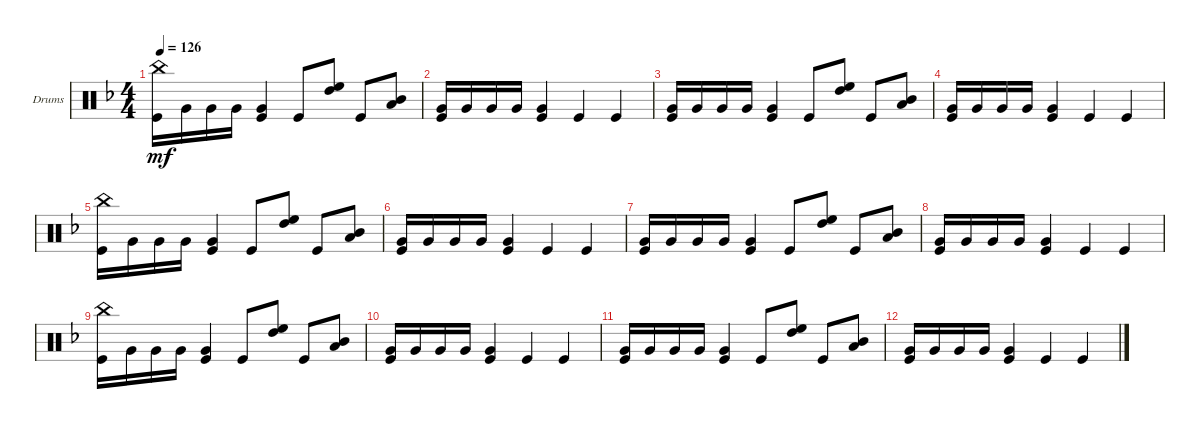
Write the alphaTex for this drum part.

\defaultSystemsLayout 4
\bracketExtendMode groupsimilarinstruments
\firstSystemTrackNameOrientation horizontal
\otherSystemsTrackNameOrientation horizontal
\track ("Drumkit" "Drums") {instrument percussion}
\staff {score}
\articulation defaults
\ts (4 4)
\tempo 126
\clef neutral
\ks f
("China (hit)" "Kick (hit)").16{dy mf} "Very Low Tom (hit)".16 "Very Low Tom (hit)".16 "Very Low Tom (hit)".16 ("Kick (hit)" "Very Low Tom (hit)").4 "Kick (hit)".8 ("High Floor Tom (hit)" "High Tom (hit)").8 "Kick (hit)".8 ("Mid Tom (hit)" "Low Tom (hit)").8 |
("Kick (hit)" "Very Low Tom (hit)").16 "Very Low Tom (hit)".16 "Very Low Tom (hit)".16 "Very Low Tom (hit)".16 ("Very Low Tom (hit)" "Kick (hit)").4 "Kick (hit)".4 "Kick (hit)".4 |
("Kick (hit)" "Very Low Tom (hit)").16 "Very Low Tom (hit)".16 "Very Low Tom (hit)".16 "Very Low Tom (hit)".16 ("Kick (hit)" "Very Low Tom (hit)").4 "Kick (hit)".8 ("High Floor Tom (hit)" "High Tom (hit)").8 "Kick (hit)".8 ("Mid Tom (hit)" "Low Tom (hit)").8 |
("Kick (hit)" "Very Low Tom (hit)").16 "Very Low Tom (hit)".16 "Very Low Tom (hit)".16 "Very Low Tom (hit)".16 ("Very Low Tom (hit)" "Kick (hit)").4 "Kick (hit)".4 "Kick (hit)".4 |
("China (hit)" "Kick (hit)").16 "Very Low Tom (hit)".16 "Very Low Tom (hit)".16 "Very Low Tom (hit)".16 ("Kick (hit)" "Very Low Tom (hit)").4 "Kick (hit)".8 ("High Floor Tom (hit)" "High Tom (hit)").8 "Kick (hit)".8 ("Mid Tom (hit)" "Low Tom (hit)").8 |
("Kick (hit)" "Very Low Tom (hit)").16 "Very Low Tom (hit)".16 "Very Low Tom (hit)".16 "Very Low Tom (hit)".16 ("Very Low Tom (hit)" "Kick (hit)").4 "Kick (hit)".4 "Kick (hit)".4 |
("Kick (hit)" "Very Low Tom (hit)").16 "Very Low Tom (hit)".16 "Very Low Tom (hit)".16 "Very Low Tom (hit)".16 ("Kick (hit)" "Very Low Tom (hit)").4 "Kick (hit)".8 ("High Floor Tom (hit)" "High Tom (hit)").8 "Kick (hit)".8 ("Mid Tom (hit)" "Low Tom (hit)").8 |
("Kick (hit)" "Very Low Tom (hit)").16 "Very Low Tom (hit)".16 "Very Low Tom (hit)".16 "Very Low Tom (hit)".16 ("Very Low Tom (hit)" "Kick (hit)").4 "Kick (hit)".4 "Kick (hit)".4 |
("China (hit)" "Kick (hit)").16 "Very Low Tom (hit)".16 "Very Low Tom (hit)".16 "Very Low Tom (hit)".16 ("Kick (hit)" "Very Low Tom (hit)").4 "Kick (hit)".8 ("High Floor Tom (hit)" "High Tom (hit)").8 "Kick (hit)".8 ("Mid Tom (hit)" "Low Tom (hit)").8 |
("Kick (hit)" "Very Low Tom (hit)").16 "Very Low Tom (hit)".16 "Very Low Tom (hit)".16 "Very Low Tom (hit)".16 ("Very Low Tom (hit)" "Kick (hit)").4 "Kick (hit)".4 "Kick (hit)".4 |
("Kick (hit)" "Very Low Tom (hit)").16 "Very Low Tom (hit)".16 "Very Low Tom (hit)".16 "Very Low Tom (hit)".16 ("Kick (hit)" "Very Low Tom (hit)").4 "Kick (hit)".8 ("High Floor Tom (hit)" "High Tom (hit)").8 "Kick (hit)".8 ("Mid Tom (hit)" "Low Tom (hit)").8 |
("Kick (hit)" "Very Low Tom (hit)").16 "Very Low Tom (hit)".16 "Very Low Tom (hit)".16 "Very Low Tom (hit)".16 ("Very Low Tom (hit)" "Kick (hit)").4 "Kick (hit)".4 "Kick (hit)".4
